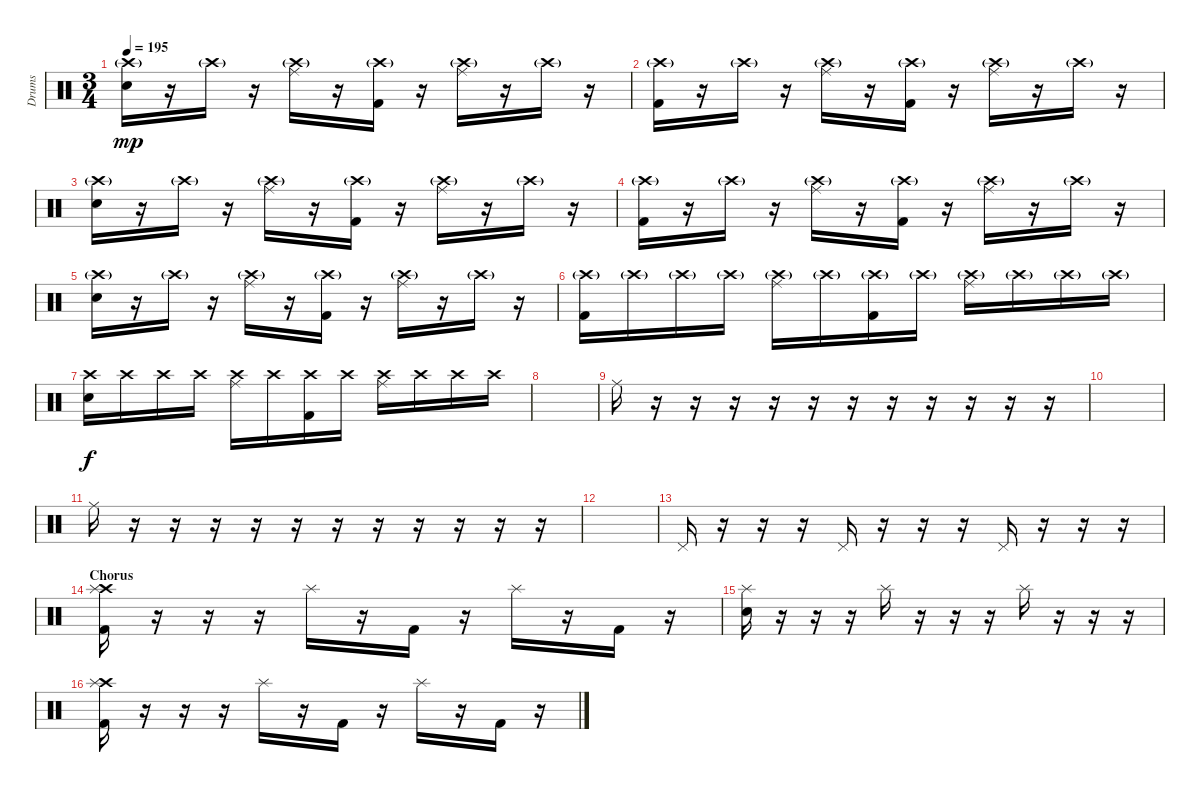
\track ("Drums" "Drums") {instrument percussion}
\staff {score}
\articulation defaults
\ts (3 4)
\tempo 195
\clef neutral
\ks c
("Crash high (hit)"{g} "Snare (hit) 2").16{dy mp} r.16 "Crash high (hit)"{g}.16 r.16 ("Crash high (hit)"{g} "Ride (middle)").16 r.16 ("Crash high (hit)"{g} "Kick (hit) 2").16 r.16 ("Crash high (hit)"{g} "Ride (middle)").16 r.16 "Crash high (hit)"{g}.16 r.16 |
("Crash high (hit)"{g} "Kick (hit) 2").16 r.16 "Crash high (hit)"{g}.16 r.16 ("Crash high (hit)"{g} "Ride (middle)").16 r.16 ("Crash high (hit)"{g} "Kick (hit) 2").16 r.16 ("Crash high (hit)"{g} "Ride (middle)").16 r.16 "Crash high (hit)"{g}.16 r.16 |
("Crash high (hit)"{g} "Snare (hit) 2").16 r.16 "Crash high (hit)"{g}.16 r.16 ("Crash high (hit)"{g} "Ride (middle)").16 r.16 ("Crash high (hit)"{g} "Kick (hit) 2").16 r.16 ("Crash high (hit)"{g} "Ride (middle)").16 r.16 "Crash high (hit)"{g}.16 r.16 |
("Crash high (hit)"{g} "Kick (hit) 2").16 r.16 "Crash high (hit)"{g}.16 r.16 ("Crash high (hit)"{g} "Ride (middle)").16 r.16 ("Crash high (hit)"{g} "Kick (hit) 2").16 r.16 ("Crash high (hit)"{g} "Ride (middle)").16 r.16 "Crash high (hit)"{g}.16 r.16 |
("Crash high (hit)"{g} "Snare (hit) 2").16 r.16 "Crash high (hit)"{g}.16 r.16 ("Crash high (hit)"{g} "Ride (middle)").16 r.16 ("Crash high (hit)"{g} "Kick (hit) 2").16 r.16 ("Crash high (hit)"{g} "Ride (middle)").16 r.16 "Crash high (hit)"{g}.16 r.16 |
("Crash high (hit)"{g} "Kick (hit) 2").16 "Crash high (hit)"{g}.16 "Crash high (hit)"{g}.16 "Crash high (hit)"{g}.16 ("Crash high (hit)"{g} "Ride (middle)").16 "Crash high (hit)"{g}.16 ("Crash high (hit)"{g} "Kick (hit) 2").16 "Crash high (hit)"{g}.16 ("Crash high (hit)"{g} "Ride (middle)").16 "Crash high (hit)"{g}.16 "Crash high (hit)"{g}.16 "Crash high (hit)"{g}.16 |
("Crash high (hit)" "Snare (hit) 2").16{dy f} "Crash high (hit)".16 "Crash high (hit)".16 "Crash high (hit)".16 ("Crash high (hit)" "Ride (middle)").16 "Crash high (hit)".16 ("Crash high (hit)" "Kick (hit) 2").16 "Crash high (hit)".16 ("Crash high (hit)" "Ride (middle)").16 "Crash high (hit)".16 "Crash high (hit)".16 "Crash high (hit)".16 |
|
"Ride (middle)".16 r.16 r.16 r.16 r.16 r.16 r.16 r.16 r.16 r.16 r.16 r.16 |
|
"Ride (middle)".16 r.16 r.16 r.16 r.16 r.16 r.16 r.16 r.16 r.16 r.16 r.16 |
|
"Pedal Hi-Hat (hit)".16 r.16 r.16 r.16 "Pedal Hi-Hat (hit)".16 r.16 r.16 r.16 "Pedal Hi-Hat (hit)".16 r.16 r.16 r.16 |
\section ("" "Chorus")
("Crash high (hit)" "Splash (hit)" "Kick (hit) 2").16 r.16 r.16 r.16 "Splash (hit)".16 r.16 "Kick (hit) 2".16 r.16 "Splash (hit)".16 r.16 "Kick (hit) 2".16 r.16 |
("Splash (hit)" "Snare (hit) 2").16 r.16 r.16 r.16 "Splash (hit)".16 r.16 r.16 r.16 "Splash (hit)".16 r.16 r.16 r.16 |
("Crash high (hit)" "Splash (hit)" "Kick (hit) 2").16 r.16 r.16 r.16 "Splash (hit)".16 r.16 "Kick (hit) 2".16 r.16 "Splash (hit)".16 r.16 "Kick (hit) 2".16 r.16
